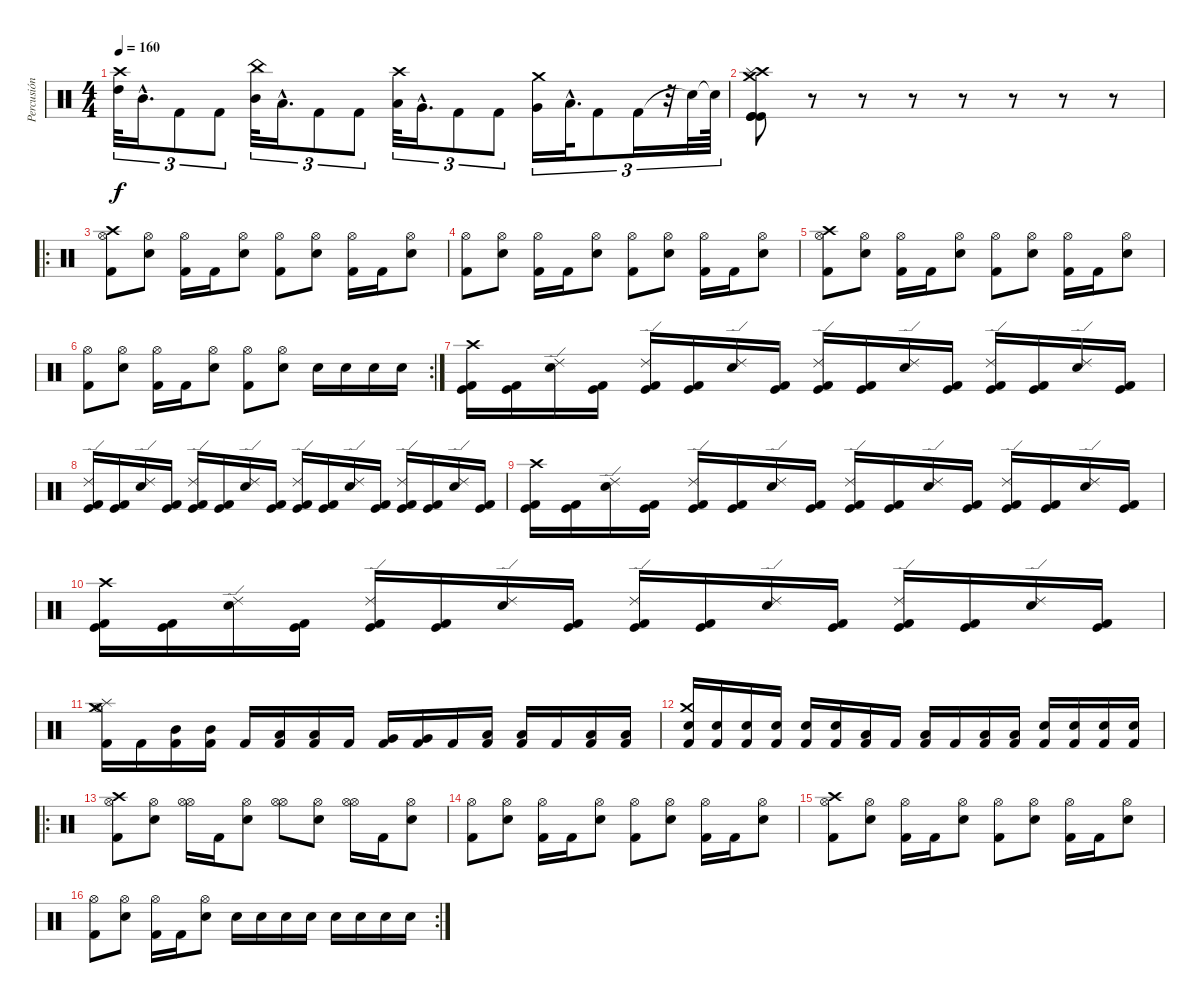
\track ("Percusión" "Percusión") {instrument percussion}
\staff {score}
\articulation defaults
\ts (4 4)
\tempo 160
\clef neutral
\ks c
("High Tom (hit)" "Crash high (hit)").32{tu (3 2) dy f} "Mid Tom (hit)"{hac}.16{d tu (3 2)} "Kick (hit) 2".8{tu (3 2)} "Kick (hit) 2".8{tu (3 2)} ("Mid Tom (hit)" "China (hit)").32{tu (3 2)} "Low Tom (hit)"{hac}.16{d tu (3 2)} "Kick (hit) 2".8{tu (3 2)} "Kick (hit) 2".8{tu (3 2)} ("Low Tom (hit)" "Crash high (hit)").32{tu (3 2)} "Very Low Tom (hit)"{hac}.16{d tu (3 2)} "Kick (hit) 2".8{tu (3 2)} "Kick (hit) 2".8{tu (3 2)} ("Very Low Tom (hit)" "Crash medium (hit)").16{tu (3 2)} "Low Floor Tom (hit)"{hac}.32{d tu (3 2)} "Kick (hit) 2".8{tu (3 2)} "Kick (hit) 2".16{tu (3 2)} r.32{tu (3 2)} "Snare (hit)"{t}.32{tu (3 2)} "Snare (hit)"{t}.64{tu (3 2)} |
("Crash medium (hit)" "Crash high (hit)" "Splash (hit)" "Kick (hit)" "Kick (hit)" "Kick (hit)").8 r.8 r.8 r.8 r.8 r.8 r.8 r.8 |
\ro
("Hi-Hat (open)" "Kick (hit) 2" "Crash high (hit)").8 ("Hi-Hat (open)" "Electric Snare (hit)").8 ("Hi-Hat (open)" "Kick (hit) 2").16 "Kick (hit) 2".16 ("Hi-Hat (open)" "Electric Snare (hit)").8 ("Hi-Hat (open)" "Kick (hit) 2").8 ("Hi-Hat (open)" "Electric Snare (hit)").8 ("Hi-Hat (open)" "Kick (hit) 2").16 "Kick (hit) 2".16 ("Hi-Hat (open)" "Electric Snare (hit)").8 |
("Hi-Hat (open)" "Kick (hit) 2").8 ("Hi-Hat (open)" "Electric Snare (hit)").8 ("Hi-Hat (open)" "Kick (hit) 2").16 "Kick (hit) 2".16 ("Hi-Hat (open)" "Electric Snare (hit)").8 ("Hi-Hat (open)" "Kick (hit) 2").8 ("Hi-Hat (open)" "Electric Snare (hit)").8 ("Hi-Hat (open)" "Kick (hit) 2").16 "Kick (hit) 2".16 ("Hi-Hat (open)" "Electric Snare (hit)").8 |
("Hi-Hat (open)" "Kick (hit) 2" "Crash high (hit)").8 ("Hi-Hat (open)" "Electric Snare (hit)").8 ("Hi-Hat (open)" "Kick (hit) 2").16 "Kick (hit) 2".16 ("Hi-Hat (open)" "Electric Snare (hit)").8 ("Hi-Hat (open)" "Kick (hit) 2").8 ("Hi-Hat (open)" "Electric Snare (hit)").8 ("Hi-Hat (open)" "Kick (hit) 2").16 "Kick (hit) 2".16 ("Hi-Hat (open)" "Electric Snare (hit)").8 |
\rc 2
("Hi-Hat (open)" "Kick (hit) 2").8 ("Hi-Hat (open)" "Electric Snare (hit)").8 ("Hi-Hat (open)" "Kick (hit) 2").16 "Kick (hit) 2".16 ("Hi-Hat (open)" "Electric Snare (hit)").8 ("Hi-Hat (open)" "Kick (hit) 2").8 ("Hi-Hat (open)" "Electric Snare (hit)").8 "Electric Snare (hit)".16 "Electric Snare (hit)".16 "Electric Snare (hit)".16 "Electric Snare (hit)".16 |
("Kick (hit)" "Kick (hit) 2" "Crash high (hit)").16 ("Kick (hit)" "Kick (hit) 2").16 ("Electric Snare (hit)" "Ride (edge) 2").16 ("Kick (hit)" "Kick (hit) 2").16 ("Kick (hit)" "Kick (hit) 2" "Ride (edge) 2").16 ("Kick (hit)" "Kick (hit) 2").16 ("Electric Snare (hit)" "Ride (edge) 2").16 ("Kick (hit)" "Kick (hit) 2").16 ("Kick (hit)" "Kick (hit) 2" "Ride (edge) 2").16 ("Kick (hit)" "Kick (hit) 2").16 ("Electric Snare (hit)" "Ride (edge) 2").16 ("Kick (hit)" "Kick (hit) 2").16 ("Kick (hit)" "Kick (hit) 2" "Ride (edge) 2").16 ("Kick (hit)" "Kick (hit) 2").16 ("Electric Snare (hit)" "Ride (edge) 2").16 ("Kick (hit)" "Kick (hit) 2").16 |
("Kick (hit)" "Kick (hit) 2" "Ride (edge) 2").16 ("Kick (hit)" "Kick (hit) 2").16 ("Electric Snare (hit)" "Ride (edge) 2").16 ("Kick (hit)" "Kick (hit) 2").16 ("Kick (hit)" "Kick (hit) 2" "Ride (edge) 2").16 ("Kick (hit)" "Kick (hit) 2").16 ("Electric Snare (hit)" "Ride (edge) 2").16 ("Kick (hit)" "Kick (hit) 2").16 ("Kick (hit)" "Kick (hit) 2" "Ride (edge) 2").16 ("Kick (hit)" "Kick (hit) 2").16 ("Electric Snare (hit)" "Ride (edge) 2").16 ("Kick (hit)" "Kick (hit) 2").16 ("Kick (hit)" "Kick (hit) 2" "Ride (edge) 2").16 ("Kick (hit)" "Kick (hit) 2").16 ("Electric Snare (hit)" "Ride (edge) 2").16 ("Kick (hit)" "Kick (hit) 2").16 |
("Kick (hit)" "Kick (hit) 2" "Crash high (hit)").16 ("Kick (hit)" "Kick (hit) 2").16 ("Electric Snare (hit)" "Ride (edge) 2").16 ("Kick (hit)" "Kick (hit) 2").16 ("Kick (hit)" "Kick (hit) 2" "Ride (edge) 2").16 ("Kick (hit)" "Kick (hit) 2").16 ("Electric Snare (hit)" "Ride (edge) 2").16 ("Kick (hit)" "Kick (hit) 2").16 ("Kick (hit)" "Kick (hit) 2" "Ride (edge) 2").16 ("Kick (hit)" "Kick (hit) 2").16 ("Electric Snare (hit)" "Ride (edge) 2").16 ("Kick (hit)" "Kick (hit) 2").16 ("Kick (hit)" "Kick (hit) 2" "Ride (edge) 2").16 ("Kick (hit)" "Kick (hit) 2").16 ("Electric Snare (hit)" "Ride (edge) 2").16 ("Kick (hit)" "Kick (hit) 2").16 |
("Kick (hit)" "Kick (hit) 2" "Crash high (hit)").16 ("Kick (hit)" "Kick (hit) 2").16 ("Electric Snare (hit)" "Ride (edge) 2").16 ("Kick (hit)" "Kick (hit) 2").16 ("Kick (hit)" "Kick (hit) 2" "Ride (edge) 2").16 ("Kick (hit)" "Kick (hit) 2").16 ("Electric Snare (hit)" "Ride (edge) 2").16 ("Kick (hit)" "Kick (hit) 2").16 ("Kick (hit)" "Kick (hit) 2" "Ride (edge) 2").16 ("Kick (hit)" "Kick (hit) 2").16 ("Electric Snare (hit)" "Ride (edge) 2").16 ("Kick (hit)" "Kick (hit) 2").16 ("Kick (hit)" "Kick (hit) 2" "Ride (edge) 2").16 ("Kick (hit)" "Kick (hit) 2").16 ("Electric Snare (hit)" "Ride (edge) 2").16 ("Kick (hit)" "Kick (hit) 2").16 |
("Splash (hit)" "Hi-Hat (open)" "Crash medium (hit)" "Kick (hit) 2").16 "Kick (hit) 2".16 ("Mid Tom (hit)" "Kick (hit) 2").16 ("Mid Tom (hit)" "Kick (hit) 2").16 "Kick (hit) 2".16 ("Low Tom (hit)" "Kick (hit) 2").16 ("Low Tom (hit)" "Kick (hit) 2").16 "Kick (hit) 2".16 ("Very Low Tom (hit)" "Kick (hit) 2").16 ("Very Low Tom (hit)" "Kick (hit) 2").16 "Kick (hit) 2".16 ("Low Floor Tom (hit)" "Kick (hit) 2").16 ("Low Floor Tom (hit)" "Kick (hit) 2").16 "Kick (hit) 2".16 ("Low Floor Tom (hit)" "Kick (hit) 2").16 ("Low Floor Tom (hit)" "Kick (hit) 2").16 |
("Kick (hit) 2" "Electric Snare (hit)" "Crash medium (hit)").16 ("Kick (hit) 2" "Electric Snare (hit)").16 ("Kick (hit) 2" "Electric Snare (hit)").16 ("Kick (hit) 2" "Electric Snare (hit)").16 ("Kick (hit) 2" "Electric Snare (hit)").16 ("Kick (hit) 2" "Electric Snare (hit)").16 ("Kick (hit) 2" "Low Tom (hit)").16 "Kick (hit) 2".16 ("Kick (hit) 2" "Low Tom (hit)").16 "Kick (hit) 2".16 ("Kick (hit) 2" "Low Tom (hit)").16 ("Kick (hit) 2" "Low Tom (hit)").16 ("Kick (hit) 2" "Electric Snare (hit)").16 ("Kick (hit) 2" "Electric Snare (hit)").16 ("Kick (hit) 2" "Electric Snare (hit)").16 ("Kick (hit) 2" "Electric Snare (hit)").16 |
\ro
("Hi-Hat (open)" "Kick (hit) 2" "Crash high (hit)").8 ("Hi-Hat (open)" "Electric Snare (hit)").8 ("Hi-Hat (open)" "Hi-Hat (open)").16 "Kick (hit) 2".16 ("Hi-Hat (open)" "Electric Snare (hit)").8 ("Hi-Hat (open)" "Hi-Hat (open)").8 ("Hi-Hat (open)" "Electric Snare (hit)").8 ("Hi-Hat (open)" "Hi-Hat (open)").16 "Kick (hit) 2".16 ("Hi-Hat (open)" "Electric Snare (hit)").8 |
("Hi-Hat (open)" "Kick (hit) 2").8 ("Hi-Hat (open)" "Electric Snare (hit)").8 ("Hi-Hat (open)" "Kick (hit) 2").16 "Kick (hit) 2".16 ("Hi-Hat (open)" "Electric Snare (hit)").8 ("Hi-Hat (open)" "Kick (hit) 2").8 ("Hi-Hat (open)" "Electric Snare (hit)").8 ("Hi-Hat (open)" "Kick (hit) 2").16 "Kick (hit) 2".16 ("Hi-Hat (open)" "Electric Snare (hit)").8 |
("Hi-Hat (open)" "Kick (hit) 2" "Crash high (hit)").8 ("Hi-Hat (open)" "Electric Snare (hit)").8 ("Hi-Hat (open)" "Kick (hit) 2").16 "Kick (hit) 2".16 ("Hi-Hat (open)" "Electric Snare (hit)").8 ("Hi-Hat (open)" "Kick (hit) 2").8 ("Hi-Hat (open)" "Electric Snare (hit)").8 ("Hi-Hat (open)" "Kick (hit) 2").16 "Kick (hit) 2".16 ("Hi-Hat (open)" "Electric Snare (hit)").8 |
\rc 2
("Hi-Hat (open)" "Kick (hit) 2").8 ("Hi-Hat (open)" "Electric Snare (hit)").8 ("Hi-Hat (open)" "Kick (hit) 2").16 "Kick (hit) 2".16 ("Hi-Hat (open)" "Electric Snare (hit)").8 "Electric Snare (hit)".16 "Electric Snare (hit)".16 "Electric Snare (hit)".16 "Electric Snare (hit)".16 "Electric Snare (hit)".16 "Electric Snare (hit)".16 "Electric Snare (hit)".16 "Electric Snare (hit)".16
